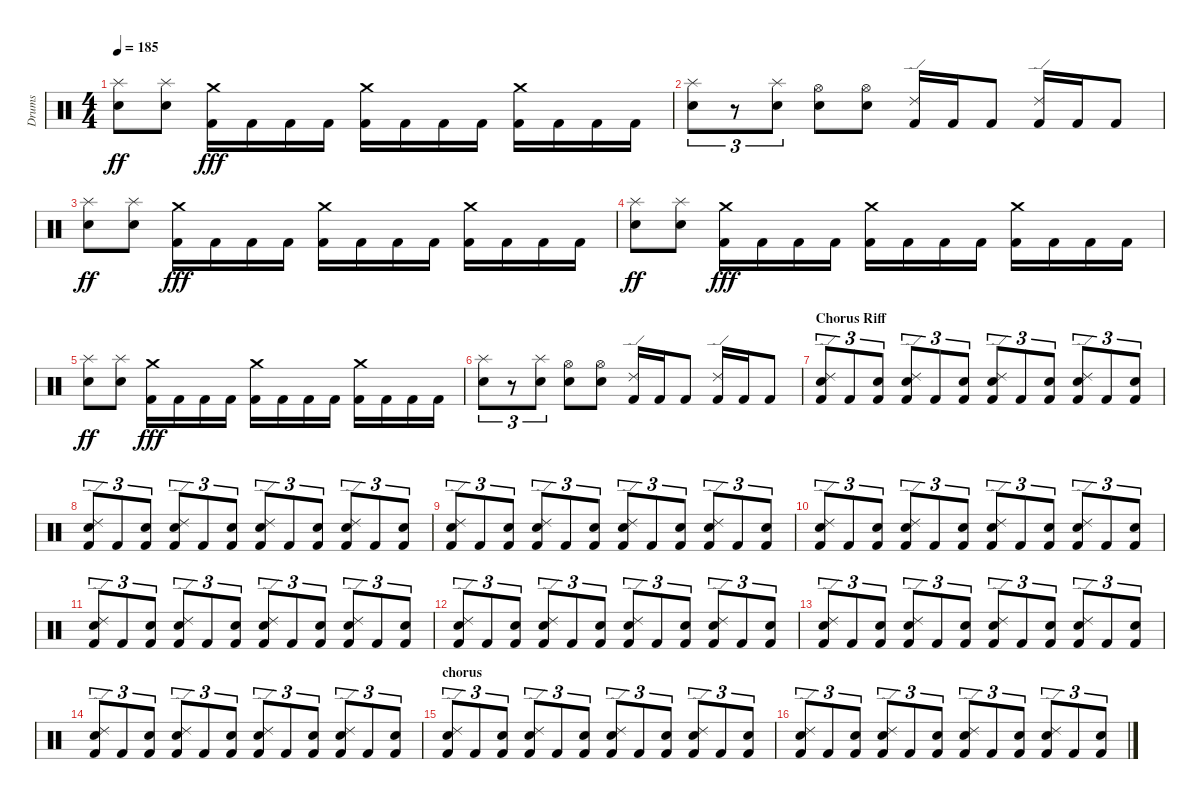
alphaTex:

\track ("Drums" "Drums") {instrument percussion}
\staff {score}
\articulation defaults
\ts (4 4)
\tempo 185
\clef neutral
\ks c
("Splash (hit)" "Electric Snare (hit)").8{dy ff} ("Splash (hit)" "Electric Snare (hit)").8 ("Kick (hit) 2" "Crash medium (hit)").16{dy fff} "Kick (hit) 2".16 "Kick (hit) 2".16 "Kick (hit) 2".16 ("Kick (hit) 2" "Crash medium (hit)").16 "Kick (hit) 2".16 "Kick (hit) 2".16 "Kick (hit) 2".16 ("Kick (hit) 2" "Crash medium (hit)").16 "Kick (hit) 2".16 "Kick (hit) 2".16 "Kick (hit) 2".16 |
("Electric Snare (hit)" "Splash (hit)").8{tu (3 2)} r.8{tu (3 2)} ("Electric Snare (hit)" "Splash (hit)").8{tu (3 2)} ("Snare (hit) 2" "Hi-Hat (open)").8 ("Snare (hit) 2" "Hi-Hat (open)").8 ("Kick (hit) 2" "Ride (edge) 2").16 "Kick (hit) 2".16 "Kick (hit) 2".8 ("Kick (hit) 2" "Ride (edge) 2").16 "Kick (hit) 2".16 "Kick (hit) 2".8 |
("Splash (hit)" "Electric Snare (hit)").8{dy ff} ("Splash (hit)" "Electric Snare (hit)").8 ("Kick (hit) 2" "Crash medium (hit)").16{dy fff} "Kick (hit) 2".16 "Kick (hit) 2".16 "Kick (hit) 2".16 ("Kick (hit) 2" "Crash medium (hit)").16 "Kick (hit) 2".16 "Kick (hit) 2".16 "Kick (hit) 2".16 ("Kick (hit) 2" "Crash medium (hit)").16 "Kick (hit) 2".16 "Kick (hit) 2".16 "Kick (hit) 2".16 |
("Splash (hit)" "Electric Snare (hit)").8{dy ff} ("Splash (hit)" "Electric Snare (hit)").8 ("Kick (hit) 2" "Crash medium (hit)").16{dy fff} "Kick (hit) 2".16 "Kick (hit) 2".16 "Kick (hit) 2".16 ("Kick (hit) 2" "Crash medium (hit)").16 "Kick (hit) 2".16 "Kick (hit) 2".16 "Kick (hit) 2".16 ("Kick (hit) 2" "Crash medium (hit)").16 "Kick (hit) 2".16 "Kick (hit) 2".16 "Kick (hit) 2".16 |
("Splash (hit)" "Electric Snare (hit)").8{dy ff} ("Splash (hit)" "Electric Snare (hit)").8 ("Kick (hit) 2" "Crash medium (hit)").16{dy fff} "Kick (hit) 2".16 "Kick (hit) 2".16 "Kick (hit) 2".16 ("Kick (hit) 2" "Crash medium (hit)").16 "Kick (hit) 2".16 "Kick (hit) 2".16 "Kick (hit) 2".16 ("Kick (hit) 2" "Crash medium (hit)").16 "Kick (hit) 2".16 "Kick (hit) 2".16 "Kick (hit) 2".16 |
("Electric Snare (hit)" "Splash (hit)").8{tu (3 2)} r.8{tu (3 2)} ("Electric Snare (hit)" "Splash (hit)").8{tu (3 2)} ("Snare (hit) 2" "Hi-Hat (open)").8 ("Snare (hit) 2" "Hi-Hat (open)").8 ("Kick (hit) 2" "Ride (edge) 2").16 "Kick (hit) 2".16 "Kick (hit) 2".8 ("Kick (hit) 2" "Ride (edge) 2").16 "Kick (hit) 2".16 "Kick (hit) 2".8 |
\section ("" "Chorus Riff")
("Ride (edge) 2" "Electric Snare (hit)" "Kick (hit) 2").8{tu (3 2)} "Kick (hit) 2".8{tu (3 2)} ("Snare (hit) 2" "Kick (hit) 2").8{tu (3 2)} ("Ride (edge) 2" "Electric Snare (hit)" "Kick (hit) 2").8{tu (3 2)} "Kick (hit) 2".8{tu (3 2)} ("Snare (hit) 2" "Kick (hit) 2").8{tu (3 2)} ("Ride (edge) 2" "Electric Snare (hit)" "Kick (hit) 2").8{tu (3 2)} "Kick (hit) 2".8{tu (3 2)} ("Snare (hit) 2" "Kick (hit) 2").8{tu (3 2)} ("Ride (edge) 2" "Electric Snare (hit)" "Kick (hit) 2").8{tu (3 2)} "Kick (hit) 2".8{tu (3 2)} ("Snare (hit) 2" "Kick (hit) 2").8{tu (3 2)} |
("Ride (edge) 2" "Electric Snare (hit)" "Kick (hit) 2").8{tu (3 2)} "Kick (hit) 2".8{tu (3 2)} ("Snare (hit) 2" "Kick (hit) 2").8{tu (3 2)} ("Ride (edge) 2" "Electric Snare (hit)" "Kick (hit) 2").8{tu (3 2)} "Kick (hit) 2".8{tu (3 2)} ("Snare (hit) 2" "Kick (hit) 2").8{tu (3 2)} ("Ride (edge) 2" "Electric Snare (hit)" "Kick (hit) 2").8{tu (3 2)} "Kick (hit) 2".8{tu (3 2)} ("Snare (hit) 2" "Kick (hit) 2").8{tu (3 2)} ("Ride (edge) 2" "Electric Snare (hit)" "Kick (hit) 2").8{tu (3 2)} "Kick (hit) 2".8{tu (3 2)} ("Snare (hit) 2" "Kick (hit) 2").8{tu (3 2)} |
("Ride (edge) 2" "Electric Snare (hit)" "Kick (hit) 2").8{tu (3 2)} "Kick (hit) 2".8{tu (3 2)} ("Snare (hit) 2" "Kick (hit) 2").8{tu (3 2)} ("Ride (edge) 2" "Electric Snare (hit)" "Kick (hit) 2").8{tu (3 2)} "Kick (hit) 2".8{tu (3 2)} ("Snare (hit) 2" "Kick (hit) 2").8{tu (3 2)} ("Ride (edge) 2" "Electric Snare (hit)" "Kick (hit) 2").8{tu (3 2)} "Kick (hit) 2".8{tu (3 2)} ("Snare (hit) 2" "Kick (hit) 2").8{tu (3 2)} ("Ride (edge) 2" "Electric Snare (hit)" "Kick (hit) 2").8{tu (3 2)} "Kick (hit) 2".8{tu (3 2)} ("Snare (hit) 2" "Kick (hit) 2").8{tu (3 2)} |
("Ride (edge) 2" "Electric Snare (hit)" "Kick (hit) 2").8{tu (3 2)} "Kick (hit) 2".8{tu (3 2)} ("Snare (hit) 2" "Kick (hit) 2").8{tu (3 2)} ("Ride (edge) 2" "Electric Snare (hit)" "Kick (hit) 2").8{tu (3 2)} "Kick (hit) 2".8{tu (3 2)} ("Snare (hit) 2" "Kick (hit) 2").8{tu (3 2)} ("Ride (edge) 2" "Electric Snare (hit)" "Kick (hit) 2").8{tu (3 2)} "Kick (hit) 2".8{tu (3 2)} ("Snare (hit) 2" "Kick (hit) 2").8{tu (3 2)} ("Ride (edge) 2" "Electric Snare (hit)" "Kick (hit) 2").8{tu (3 2)} "Kick (hit) 2".8{tu (3 2)} ("Snare (hit) 2" "Kick (hit) 2").8{tu (3 2)} |
("Ride (edge) 2" "Electric Snare (hit)" "Kick (hit) 2").8{tu (3 2)} "Kick (hit) 2".8{tu (3 2)} ("Snare (hit) 2" "Kick (hit) 2").8{tu (3 2)} ("Ride (edge) 2" "Electric Snare (hit)" "Kick (hit) 2").8{tu (3 2)} "Kick (hit) 2".8{tu (3 2)} ("Snare (hit) 2" "Kick (hit) 2").8{tu (3 2)} ("Ride (edge) 2" "Electric Snare (hit)" "Kick (hit) 2").8{tu (3 2)} "Kick (hit) 2".8{tu (3 2)} ("Snare (hit) 2" "Kick (hit) 2").8{tu (3 2)} ("Ride (edge) 2" "Electric Snare (hit)" "Kick (hit) 2").8{tu (3 2)} "Kick (hit) 2".8{tu (3 2)} ("Snare (hit) 2" "Kick (hit) 2").8{tu (3 2)} |
("Ride (edge) 2" "Electric Snare (hit)" "Kick (hit) 2").8{tu (3 2)} "Kick (hit) 2".8{tu (3 2)} ("Snare (hit) 2" "Kick (hit) 2").8{tu (3 2)} ("Ride (edge) 2" "Electric Snare (hit)" "Kick (hit) 2").8{tu (3 2)} "Kick (hit) 2".8{tu (3 2)} ("Snare (hit) 2" "Kick (hit) 2").8{tu (3 2)} ("Ride (edge) 2" "Electric Snare (hit)" "Kick (hit) 2").8{tu (3 2)} "Kick (hit) 2".8{tu (3 2)} ("Snare (hit) 2" "Kick (hit) 2").8{tu (3 2)} ("Ride (edge) 2" "Electric Snare (hit)" "Kick (hit) 2").8{tu (3 2)} "Kick (hit) 2".8{tu (3 2)} ("Snare (hit) 2" "Kick (hit) 2").8{tu (3 2)} |
("Ride (edge) 2" "Electric Snare (hit)" "Kick (hit) 2").8{tu (3 2)} "Kick (hit) 2".8{tu (3 2)} ("Snare (hit) 2" "Kick (hit) 2").8{tu (3 2)} ("Ride (edge) 2" "Electric Snare (hit)" "Kick (hit) 2").8{tu (3 2)} "Kick (hit) 2".8{tu (3 2)} ("Snare (hit) 2" "Kick (hit) 2").8{tu (3 2)} ("Ride (edge) 2" "Electric Snare (hit)" "Kick (hit) 2").8{tu (3 2)} "Kick (hit) 2".8{tu (3 2)} ("Snare (hit) 2" "Kick (hit) 2").8{tu (3 2)} ("Ride (edge) 2" "Electric Snare (hit)" "Kick (hit) 2").8{tu (3 2)} "Kick (hit) 2".8{tu (3 2)} ("Snare (hit) 2" "Kick (hit) 2").8{tu (3 2)} |
("Ride (edge) 2" "Electric Snare (hit)" "Kick (hit) 2").8{tu (3 2)} "Kick (hit) 2".8{tu (3 2)} ("Snare (hit) 2" "Kick (hit) 2").8{tu (3 2)} ("Ride (edge) 2" "Electric Snare (hit)" "Kick (hit) 2").8{tu (3 2)} "Kick (hit) 2".8{tu (3 2)} ("Snare (hit) 2" "Kick (hit) 2").8{tu (3 2)} ("Ride (edge) 2" "Electric Snare (hit)" "Kick (hit) 2").8{tu (3 2)} "Kick (hit) 2".8{tu (3 2)} ("Snare (hit) 2" "Kick (hit) 2").8{tu (3 2)} ("Ride (edge) 2" "Electric Snare (hit)" "Kick (hit) 2").8{tu (3 2)} "Kick (hit) 2".8{tu (3 2)} ("Snare (hit) 2" "Kick (hit) 2").8{tu (3 2)} |
\section ("" "chorus")
("Ride (edge) 2" "Electric Snare (hit)" "Kick (hit) 2").8{tu (3 2)} "Kick (hit) 2".8{tu (3 2)} ("Snare (hit) 2" "Kick (hit) 2").8{tu (3 2)} ("Ride (edge) 2" "Electric Snare (hit)" "Kick (hit) 2").8{tu (3 2)} "Kick (hit) 2".8{tu (3 2)} ("Snare (hit) 2" "Kick (hit) 2").8{tu (3 2)} ("Ride (edge) 2" "Electric Snare (hit)" "Kick (hit) 2").8{tu (3 2)} "Kick (hit) 2".8{tu (3 2)} ("Snare (hit) 2" "Kick (hit) 2").8{tu (3 2)} ("Ride (edge) 2" "Electric Snare (hit)" "Kick (hit) 2").8{tu (3 2)} "Kick (hit) 2".8{tu (3 2)} ("Snare (hit) 2" "Kick (hit) 2").8{tu (3 2)} |
("Ride (edge) 2" "Electric Snare (hit)" "Kick (hit) 2").8{tu (3 2)} "Kick (hit) 2".8{tu (3 2)} ("Snare (hit) 2" "Kick (hit) 2").8{tu (3 2)} ("Ride (edge) 2" "Electric Snare (hit)" "Kick (hit) 2").8{tu (3 2)} "Kick (hit) 2".8{tu (3 2)} ("Snare (hit) 2" "Kick (hit) 2").8{tu (3 2)} ("Ride (edge) 2" "Electric Snare (hit)" "Kick (hit) 2").8{tu (3 2)} "Kick (hit) 2".8{tu (3 2)} ("Snare (hit) 2" "Kick (hit) 2").8{tu (3 2)} ("Ride (edge) 2" "Electric Snare (hit)" "Kick (hit) 2").8{tu (3 2)} "Kick (hit) 2".8{tu (3 2)} ("Snare (hit) 2" "Kick (hit) 2").8{tu (3 2)}
